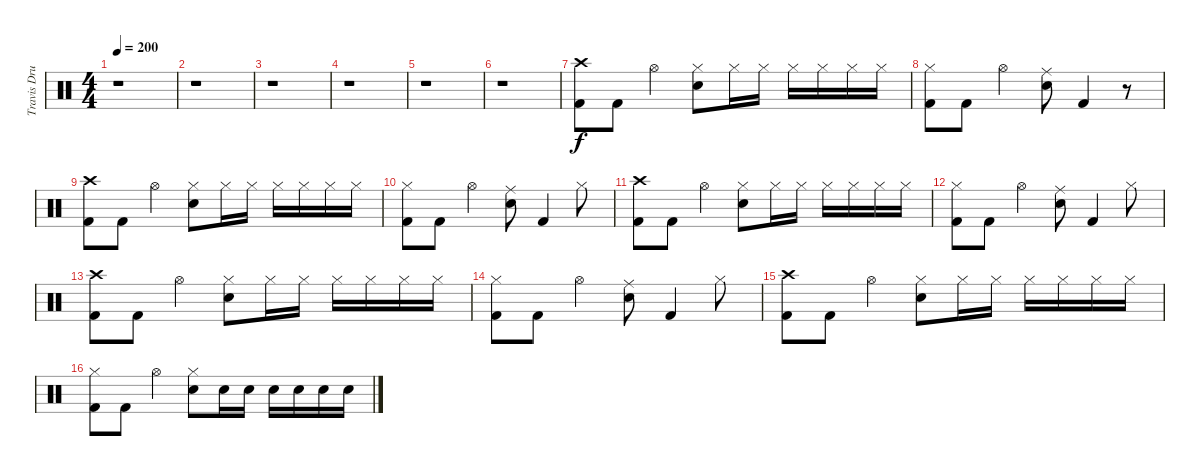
\track ("Travis Drums" "Travis Dru") {instrument percussion}
\staff {score}
\articulation defaults
\ts (4 4)
\tempo 200
\clef neutral
\ks c
r.1{dy f} |
r.1 |
r.1 |
r.1 |
r.1 |
r.1 |
("Crash high (hit)" "Kick (hit) 2").8 "Kick (hit) 2".8 "Hi-Hat (open)".4 ("Hi-Hat (closed)" "Electric Snare (hit)").8 "Hi-Hat (closed)".16 "Hi-Hat (closed)".16 "Hi-Hat (closed)".16 "Hi-Hat (closed)".16 "Hi-Hat (closed)".16 "Hi-Hat (closed)".16 |
("Hi-Hat (closed)" "Kick (hit) 2").8 "Kick (hit) 2".8 "Hi-Hat (open)".4 ("Ride (middle)" "Electric Snare (hit)").8 "Kick (hit) 2".4 r.8 |
("Crash high (hit)" "Kick (hit) 2").8 "Kick (hit) 2".8 "Hi-Hat (open)".4 ("Hi-Hat (closed)" "Electric Snare (hit)").8 "Hi-Hat (closed)".16 "Hi-Hat (closed)".16 "Hi-Hat (closed)".16 "Hi-Hat (closed)".16 "Hi-Hat (closed)".16 "Hi-Hat (closed)".16 |
("Hi-Hat (closed)" "Kick (hit) 2").8 "Kick (hit) 2".8 "Hi-Hat (open)".4 ("Ride (middle)" "Electric Snare (hit)").8 "Kick (hit) 2".4 "Hi-Hat (closed)".8 |
("Crash high (hit)" "Kick (hit) 2").8 "Kick (hit) 2".8 "Hi-Hat (open)".4 ("Hi-Hat (closed)" "Electric Snare (hit)").8 "Hi-Hat (closed)".16 "Hi-Hat (closed)".16 "Hi-Hat (closed)".16 "Hi-Hat (closed)".16 "Hi-Hat (closed)".16 "Hi-Hat (closed)".16 |
("Hi-Hat (closed)" "Kick (hit) 2").8 "Kick (hit) 2".8 "Hi-Hat (open)".4 ("Ride (middle)" "Electric Snare (hit)").8 "Kick (hit) 2".4 "Hi-Hat (closed)".8 |
("Crash high (hit)" "Kick (hit) 2").8 "Kick (hit) 2".8 "Hi-Hat (open)".4 ("Hi-Hat (closed)" "Electric Snare (hit)").8 "Hi-Hat (closed)".16 "Hi-Hat (closed)".16 "Hi-Hat (closed)".16 "Hi-Hat (closed)".16 "Hi-Hat (closed)".16 "Hi-Hat (closed)".16 |
("Hi-Hat (closed)" "Kick (hit) 2").8 "Kick (hit) 2".8 "Hi-Hat (open)".4 ("Ride (middle)" "Electric Snare (hit)").8 "Kick (hit) 2".4 "Hi-Hat (closed)".8 |
("Crash high (hit)" "Kick (hit) 2").8 "Kick (hit) 2".8 "Hi-Hat (open)".4 ("Hi-Hat (closed)" "Electric Snare (hit)").8 "Hi-Hat (closed)".16 "Hi-Hat (closed)".16 "Hi-Hat (closed)".16 "Hi-Hat (closed)".16 "Hi-Hat (closed)".16 "Hi-Hat (closed)".16 |
("Hi-Hat (closed)" "Kick (hit) 2").8 "Kick (hit) 2".8 "Hi-Hat (open)".4 ("Hi-Hat (closed)" "Electric Snare (hit)").8 "Electric Snare (hit)".16 "Electric Snare (hit)".16 "Electric Snare (hit)".16 "Electric Snare (hit)".16 "Electric Snare (hit)".16 "Electric Snare (hit)".16
